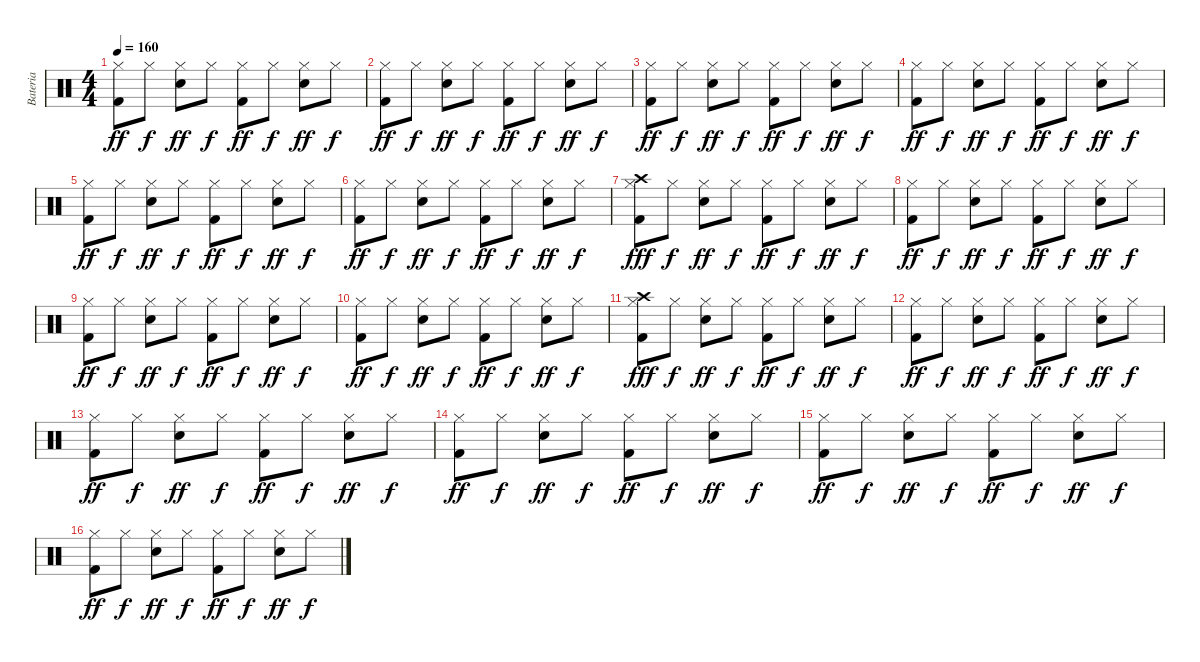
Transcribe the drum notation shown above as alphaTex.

\track ("Bateria" "Bateria") {instrument percussion}
\staff {score}
\articulation defaults
\ts (4 4)
\tempo 160
\clef neutral
\ks c
("Kick (hit) 2" "Hi-Hat (closed)").8{dy ff} "Hi-Hat (closed)".8{dy f} ("Hi-Hat (closed)" "Snare (hit) 2").8{dy ff} "Hi-Hat (closed)".8{dy f} ("Kick (hit) 2" "Hi-Hat (closed)").8{dy ff} "Hi-Hat (closed)".8{dy f} ("Hi-Hat (closed)" "Snare (hit) 2").8{dy ff} "Hi-Hat (closed)".8{dy f} |
("Kick (hit) 2" "Hi-Hat (closed)").8{dy ff} "Hi-Hat (closed)".8{dy f} ("Hi-Hat (closed)" "Snare (hit) 2").8{dy ff} "Hi-Hat (closed)".8{dy f} ("Kick (hit) 2" "Hi-Hat (closed)").8{dy ff} "Hi-Hat (closed)".8{dy f} ("Hi-Hat (closed)" "Snare (hit) 2").8{dy ff} "Hi-Hat (closed)".8{dy f} |
("Kick (hit) 2" "Hi-Hat (closed)").8{dy ff} "Hi-Hat (closed)".8{dy f} ("Hi-Hat (closed)" "Snare (hit) 2").8{dy ff} "Hi-Hat (closed)".8{dy f} ("Kick (hit) 2" "Hi-Hat (closed)").8{dy ff} "Hi-Hat (closed)".8{dy f} ("Hi-Hat (closed)" "Snare (hit) 2").8{dy ff} "Hi-Hat (closed)".8{dy f} |
("Kick (hit) 2" "Hi-Hat (closed)").8{dy ff} "Hi-Hat (closed)".8{dy f} ("Hi-Hat (closed)" "Snare (hit) 2").8{dy ff} "Hi-Hat (closed)".8{dy f} ("Kick (hit) 2" "Hi-Hat (closed)").8{dy ff} "Hi-Hat (closed)".8{dy f} ("Hi-Hat (closed)" "Snare (hit) 2").8{dy ff} "Hi-Hat (closed)".8{dy f} |
("Kick (hit) 2" "Hi-Hat (closed)").8{dy ff} "Hi-Hat (closed)".8{dy f} ("Hi-Hat (closed)" "Snare (hit) 2").8{dy ff} "Hi-Hat (closed)".8{dy f} ("Kick (hit) 2" "Hi-Hat (closed)").8{dy ff} "Hi-Hat (closed)".8{dy f} ("Hi-Hat (closed)" "Snare (hit) 2").8{dy ff} "Hi-Hat (closed)".8{dy f} |
("Kick (hit) 2" "Hi-Hat (closed)").8{dy ff} "Hi-Hat (closed)".8{dy f} ("Hi-Hat (closed)" "Snare (hit) 2").8{dy ff} "Hi-Hat (closed)".8{dy f} ("Kick (hit) 2" "Hi-Hat (closed)").8{dy ff} "Hi-Hat (closed)".8{dy f} ("Hi-Hat (closed)" "Snare (hit) 2").8{dy ff} "Hi-Hat (closed)".8{dy f} |
("Kick (hit) 2" "Crash high (hit)" "Hi-Hat (closed)").8{dy fff} "Hi-Hat (closed)".8{dy f} ("Hi-Hat (closed)" "Snare (hit) 2").8{dy ff} "Hi-Hat (closed)".8{dy f} ("Kick (hit) 2" "Hi-Hat (closed)").8{dy ff} "Hi-Hat (closed)".8{dy f} ("Hi-Hat (closed)" "Snare (hit) 2").8{dy ff} "Hi-Hat (closed)".8{dy f} |
("Kick (hit) 2" "Hi-Hat (closed)").8{dy ff} "Hi-Hat (closed)".8{dy f} ("Hi-Hat (closed)" "Snare (hit) 2").8{dy ff} "Hi-Hat (closed)".8{dy f} ("Kick (hit) 2" "Hi-Hat (closed)").8{dy ff} "Hi-Hat (closed)".8{dy f} ("Hi-Hat (closed)" "Snare (hit) 2").8{dy ff} "Hi-Hat (closed)".8{dy f} |
("Kick (hit) 2" "Hi-Hat (closed)").8{dy ff} "Hi-Hat (closed)".8{dy f} ("Hi-Hat (closed)" "Snare (hit) 2").8{dy ff} "Hi-Hat (closed)".8{dy f} ("Kick (hit) 2" "Hi-Hat (closed)").8{dy ff} "Hi-Hat (closed)".8{dy f} ("Hi-Hat (closed)" "Snare (hit) 2").8{dy ff} "Hi-Hat (closed)".8{dy f} |
("Kick (hit) 2" "Hi-Hat (closed)").8{dy ff} "Hi-Hat (closed)".8{dy f} ("Hi-Hat (closed)" "Snare (hit) 2").8{dy ff} "Hi-Hat (closed)".8{dy f} ("Kick (hit) 2" "Hi-Hat (closed)").8{dy ff} "Hi-Hat (closed)".8{dy f} ("Hi-Hat (closed)" "Snare (hit) 2").8{dy ff} "Hi-Hat (closed)".8{dy f} |
("Kick (hit) 2" "Crash high (hit)" "Hi-Hat (closed)").8{dy fff} "Hi-Hat (closed)".8{dy f} ("Hi-Hat (closed)" "Snare (hit) 2").8{dy ff} "Hi-Hat (closed)".8{dy f} ("Kick (hit) 2" "Hi-Hat (closed)").8{dy ff} "Hi-Hat (closed)".8{dy f} ("Hi-Hat (closed)" "Snare (hit) 2").8{dy ff} "Hi-Hat (closed)".8{dy f} |
("Kick (hit) 2" "Hi-Hat (closed)").8{dy ff} "Hi-Hat (closed)".8{dy f} ("Hi-Hat (closed)" "Snare (hit) 2").8{dy ff} "Hi-Hat (closed)".8{dy f} ("Kick (hit) 2" "Hi-Hat (closed)").8{dy ff} "Hi-Hat (closed)".8{dy f} ("Hi-Hat (closed)" "Snare (hit) 2").8{dy ff} "Hi-Hat (closed)".8{dy f} |
("Kick (hit) 2" "Hi-Hat (closed)").8{dy ff} "Hi-Hat (closed)".8{dy f} ("Hi-Hat (closed)" "Snare (hit) 2").8{dy ff} "Hi-Hat (closed)".8{dy f} ("Kick (hit) 2" "Hi-Hat (closed)").8{dy ff} "Hi-Hat (closed)".8{dy f} ("Hi-Hat (closed)" "Snare (hit) 2").8{dy ff} "Hi-Hat (closed)".8{dy f} |
("Kick (hit) 2" "Hi-Hat (closed)").8{dy ff} "Hi-Hat (closed)".8{dy f} ("Hi-Hat (closed)" "Snare (hit) 2").8{dy ff} "Hi-Hat (closed)".8{dy f} ("Kick (hit) 2" "Hi-Hat (closed)").8{dy ff} "Hi-Hat (closed)".8{dy f} ("Hi-Hat (closed)" "Snare (hit) 2").8{dy ff} "Hi-Hat (closed)".8{dy f} |
("Kick (hit) 2" "Hi-Hat (closed)").8{dy ff} "Hi-Hat (closed)".8{dy f} ("Hi-Hat (closed)" "Snare (hit) 2").8{dy ff} "Hi-Hat (closed)".8{dy f} ("Kick (hit) 2" "Hi-Hat (closed)").8{dy ff} "Hi-Hat (closed)".8{dy f} ("Hi-Hat (closed)" "Snare (hit) 2").8{dy ff} "Hi-Hat (closed)".8{dy f} |
("Kick (hit) 2" "Hi-Hat (closed)").8{dy ff} "Hi-Hat (closed)".8{dy f} ("Hi-Hat (closed)" "Snare (hit) 2").8{dy ff} "Hi-Hat (closed)".8{dy f} ("Kick (hit) 2" "Hi-Hat (closed)").8{dy ff} "Hi-Hat (closed)".8{dy f} ("Hi-Hat (closed)" "Snare (hit) 2").8{dy ff} "Hi-Hat (closed)".8{dy f}
